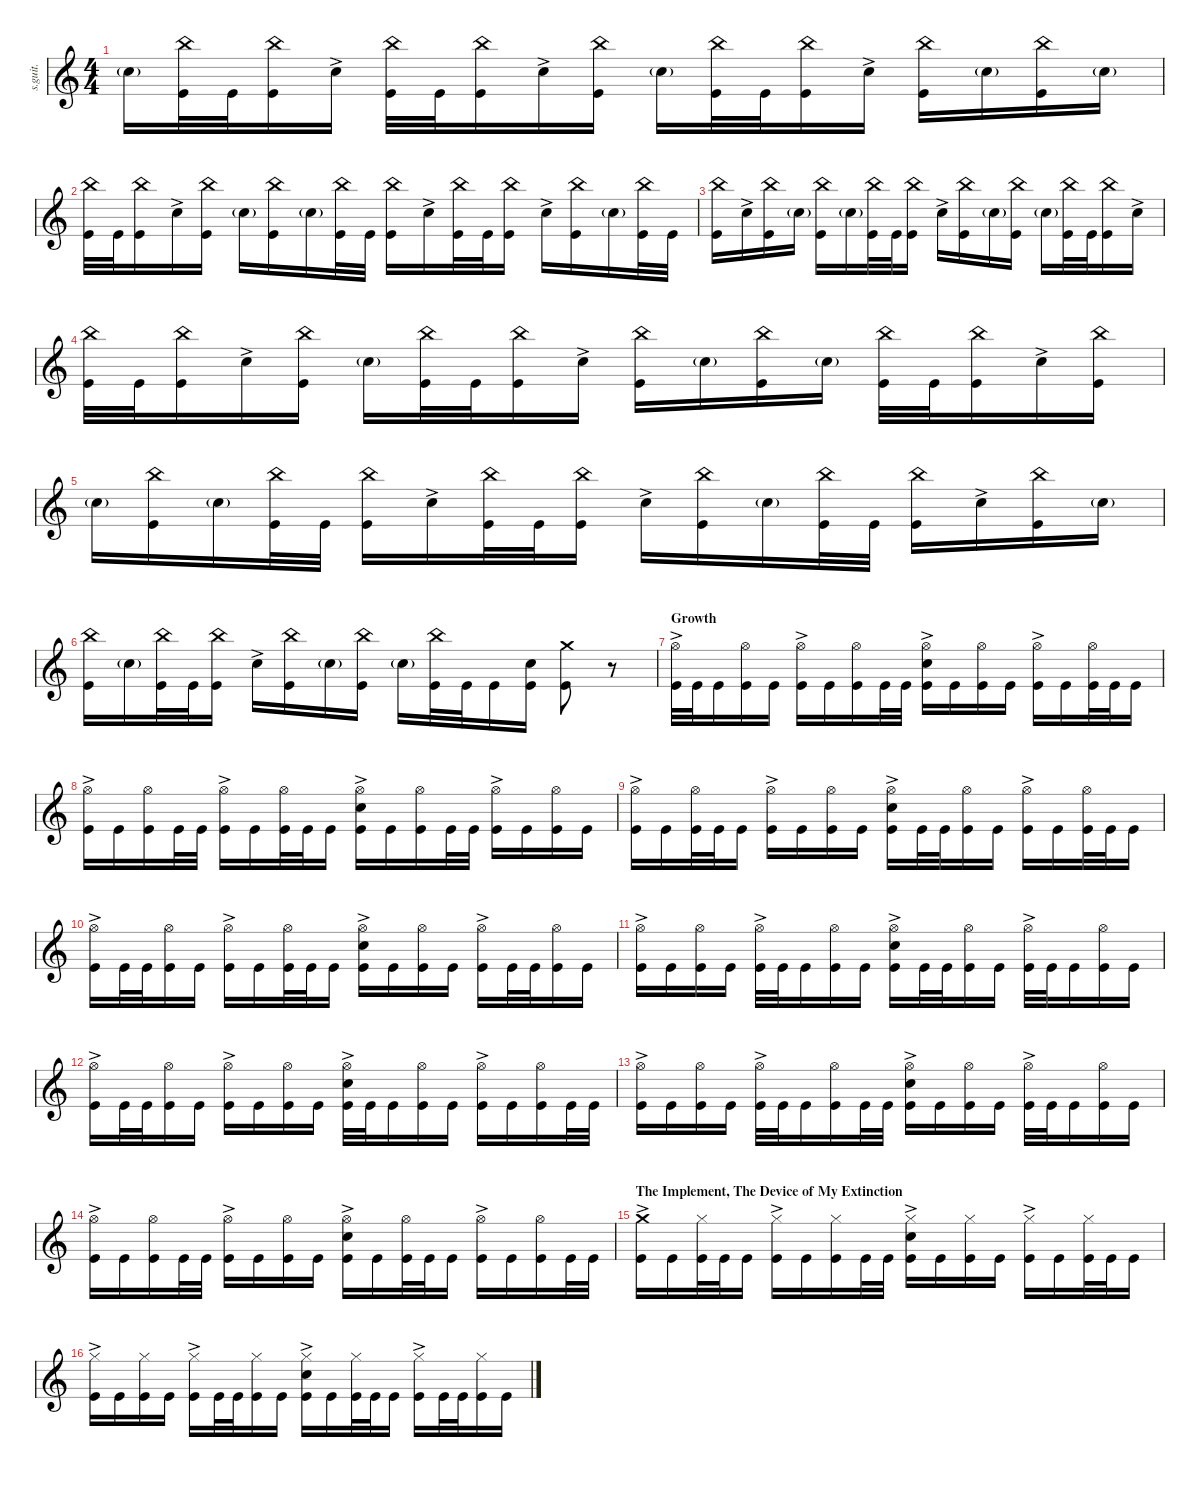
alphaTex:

\defaultSystemsLayout 4
\hideDynamics
\bracketExtendMode nobrackets
\track ("Tomas Haake (Drums)" "s.guit.") {instrument percussion}
\staff {score}
\articulation defaults
\ts (4 4)
\tempo (115 hide)
\clef g2
\ks c "Snare (hit) 2"{g}.16{lyrics (0 "") lyrics (1 "") lyrics (2 "") lyrics (3 "") lyrics (4 "") dy f}
("China (hit)" "Kick (hit)").32{lyrics (0 "") lyrics (1 "") lyrics (2 "") lyrics (3 "") lyrics (4 "") dy mf} "Kick (hit)".32{lyrics (0 "") lyrics (1 "") lyrics (2 "") lyrics (3 "") lyrics (4 "")} ("China (hit)" "Kick (hit)").16{lyrics (0 "") lyrics (1 "") lyrics (2 "") lyrics (3 "") lyrics (4 "") dy f} "Snare (hit) 2"{ac}.16{lyrics (0 "") lyrics (1 "") lyrics (2 "") lyrics (3 "") lyrics (4 "") dy pp} ("China (hit)" "Kick (hit)").32{lyrics (0 "") lyrics (1 "") lyrics (2 "") lyrics (3 "") lyrics (4 "") dy mf} "Kick (hit)".32{lyrics (0 "") lyrics (1 "") lyrics (2 "") lyrics (3 "") lyrics (4 "")} ("China (hit)" "Kick (hit)").16{lyrics (0 "") lyrics (1 "") lyrics (2 "") lyrics (3 "") lyrics (4 "") dy f} "Snare (hit) 2"{ac}.16{lyrics (0 "") lyrics (1 "") lyrics (2 "") lyrics (3 "") lyrics (4 "") dy pp} ("China (hit)" "Kick (hit)").16{lyrics (0 "") lyrics (1 "") lyrics (2 "") lyrics (3 "") lyrics (4 "") dy f} "Snare (hit) 2"{g}.16{lyrics (0 "") lyrics (1 "") lyrics (2 "") lyrics (3 "") lyrics (4 "")} ("China (hit)" "Kick (hit)").32{lyrics (0 "") lyrics (1 "") lyrics (2 "") lyrics (3 "") lyrics (4 "") dy mf} "Kick (hit)".32{lyrics (0 "") lyrics (1 "") lyrics (2 "") lyrics (3 "") lyrics (4 "")} ("China (hit)" "Kick (hit)").16{lyrics (0 "") lyrics (1 "") lyrics (2 "") lyrics (3 "") lyrics (4 "") dy f} "Snare (hit) 2"{ac}.16{lyrics (0 "") lyrics (1 "") lyrics (2 "") lyrics (3 "") lyrics (4 "") dy pp} ("China (hit)" "Kick (hit)").16{lyrics (0 "") lyrics (1 "") lyrics (2 "") lyrics (3 "") lyrics (4 "") dy f} "Snare (hit) 2"{g}.16{lyrics (0 "") lyrics (1 "") lyrics (2 "") lyrics (3 "") lyrics (4 "")} ("China (hit)" "Kick (hit)").16{lyrics (0 "") lyrics (1 "") lyrics (2 "") lyrics (3 "") lyrics (4 "")} "Snare (hit) 2"{g}.16{lyrics (0 "") lyrics (1 "") lyrics (2 "") lyrics (3 "") lyrics (4 "")} |
("China (hit)" "Kick (hit)").32{lyrics (0 "") lyrics (1 "") lyrics (2 "") lyrics (3 "") lyrics (4 "") dy mf} "Kick (hit)".32{lyrics (0 "") lyrics (1 "") lyrics (2 "") lyrics (3 "") lyrics (4 "")} ("China (hit)" "Kick (hit)").16{lyrics (0 "") lyrics (1 "") lyrics (2 "") lyrics (3 "") lyrics (4 "") dy f} "Snare (hit) 2"{ac}.16{lyrics (0 "") lyrics (1 "") lyrics (2 "") lyrics (3 "") lyrics (4 "") dy pp} ("China (hit)" "Kick (hit)").16{lyrics (0 "") lyrics (1 "") lyrics (2 "") lyrics (3 "") lyrics (4 "") dy f} "Snare (hit) 2"{g}.16{lyrics (0 "") lyrics (1 "") lyrics (2 "") lyrics (3 "") lyrics (4 "")} ("China (hit)" "Kick (hit)").16{lyrics (0 "") lyrics (1 "") lyrics (2 "") lyrics (3 "") lyrics (4 "")} "Snare (hit) 2"{g}.16{lyrics (0 "") lyrics (1 "") lyrics (2 "") lyrics (3 "") lyrics (4 "")} ("China (hit)" "Kick (hit)").32{lyrics (0 "") lyrics (1 "") lyrics (2 "") lyrics (3 "") lyrics (4 "") dy mf} "Kick (hit)".32{lyrics (0 "") lyrics (1 "") lyrics (2 "") lyrics (3 "") lyrics (4 "")} ("China (hit)" "Kick (hit)").16{lyrics (0 "") lyrics (1 "") lyrics (2 "") lyrics (3 "") lyrics (4 "") dy f} "Snare (hit) 2"{ac}.16{lyrics (0 "") lyrics (1 "") lyrics (2 "") lyrics (3 "") lyrics (4 "") dy pp} ("China (hit)" "Kick (hit)").32{lyrics (0 "") lyrics (1 "") lyrics (2 "") lyrics (3 "") lyrics (4 "") dy mf} "Kick (hit)".32{lyrics (0 "") lyrics (1 "") lyrics (2 "") lyrics (3 "") lyrics (4 "")} ("China (hit)" "Kick (hit)").16{lyrics (0 "") lyrics (1 "") lyrics (2 "") lyrics (3 "") lyrics (4 "") dy f} "Snare (hit) 2"{ac}.16{lyrics (0 "") lyrics (1 "") lyrics (2 "") lyrics (3 "") lyrics (4 "") dy pp} ("China (hit)" "Kick (hit)").16{lyrics (0 "") lyrics (1 "") lyrics (2 "") lyrics (3 "") lyrics (4 "") dy f} "Snare (hit) 2"{g}.16{lyrics (0 "") lyrics (1 "") lyrics (2 "") lyrics (3 "") lyrics (4 "")} ("China (hit)" "Kick (hit)").32{lyrics (0 "") lyrics (1 "") lyrics (2 "") lyrics (3 "") lyrics (4 "") dy mf} "Kick (hit)".32{lyrics (0 "") lyrics (1 "") lyrics (2 "") lyrics (3 "") lyrics (4 "")} |
("China (hit)" "Kick (hit)").16{lyrics (0 "") lyrics (1 "") lyrics (2 "") lyrics (3 "") lyrics (4 "") dy f} "Snare (hit) 2"{ac}.16{lyrics (0 "") lyrics (1 "") lyrics (2 "") lyrics (3 "") lyrics (4 "") dy pp} ("China (hit)" "Kick (hit)").16{lyrics (0 "") lyrics (1 "") lyrics (2 "") lyrics (3 "") lyrics (4 "") dy f} "Snare (hit) 2"{g}.16{lyrics (0 "") lyrics (1 "") lyrics (2 "") lyrics (3 "") lyrics (4 "")} ("China (hit)" "Kick (hit)").16{lyrics (0 "") lyrics (1 "") lyrics (2 "") lyrics (3 "") lyrics (4 "")} "Snare (hit) 2"{g}.16{lyrics (0 "") lyrics (1 "") lyrics (2 "") lyrics (3 "") lyrics (4 "")} ("China (hit)" "Kick (hit)").32{lyrics (0 "") lyrics (1 "") lyrics (2 "") lyrics (3 "") lyrics (4 "") dy mf} "Kick (hit)".32{lyrics (0 "") lyrics (1 "") lyrics (2 "") lyrics (3 "") lyrics (4 "")} ("China (hit)" "Kick (hit)").16{lyrics (0 "") lyrics (1 "") lyrics (2 "") lyrics (3 "") lyrics (4 "") dy f} "Snare (hit) 2"{ac}.16{lyrics (0 "") lyrics (1 "") lyrics (2 "") lyrics (3 "") lyrics (4 "") dy pp} ("China (hit)" "Kick (hit)").16{lyrics (0 "") lyrics (1 "") lyrics (2 "") lyrics (3 "") lyrics (4 "") dy f} "Snare (hit) 2"{g}.16{lyrics (0 "") lyrics (1 "") lyrics (2 "") lyrics (3 "") lyrics (4 "")} ("China (hit)" "Kick (hit)").16{lyrics (0 "") lyrics (1 "") lyrics (2 "") lyrics (3 "") lyrics (4 "")} "Snare (hit) 2"{g}.16{lyrics (0 "") lyrics (1 "") lyrics (2 "") lyrics (3 "") lyrics (4 "")} ("China (hit)" "Kick (hit)").32{lyrics (0 "") lyrics (1 "") lyrics (2 "") lyrics (3 "") lyrics (4 "") dy mf} "Kick (hit)".32{lyrics (0 "") lyrics (1 "") lyrics (2 "") lyrics (3 "") lyrics (4 "")} ("China (hit)" "Kick (hit)").16{lyrics (0 "") lyrics (1 "") lyrics (2 "") lyrics (3 "") lyrics (4 "") dy f} "Snare (hit) 2"{ac}.16{lyrics (0 "") lyrics (1 "") lyrics (2 "") lyrics (3 "") lyrics (4 "") dy pp} |
("China (hit)" "Kick (hit)").32{lyrics (0 "") lyrics (1 "") lyrics (2 "") lyrics (3 "") lyrics (4 "") dy mf} "Kick (hit)".32{lyrics (0 "") lyrics (1 "") lyrics (2 "") lyrics (3 "") lyrics (4 "")} ("China (hit)" "Kick (hit)").16{lyrics (0 "") lyrics (1 "") lyrics (2 "") lyrics (3 "") lyrics (4 "") dy f} "Snare (hit) 2"{ac}.16{lyrics (0 "") lyrics (1 "") lyrics (2 "") lyrics (3 "") lyrics (4 "") dy pp} ("China (hit)" "Kick (hit)").16{lyrics (0 "") lyrics (1 "") lyrics (2 "") lyrics (3 "") lyrics (4 "") dy f} "Snare (hit) 2"{g}.16{lyrics (0 "") lyrics (1 "") lyrics (2 "") lyrics (3 "") lyrics (4 "")} ("China (hit)" "Kick (hit)").32{lyrics (0 "") lyrics (1 "") lyrics (2 "") lyrics (3 "") lyrics (4 "") dy mf} "Kick (hit)".32{lyrics (0 "") lyrics (1 "") lyrics (2 "") lyrics (3 "") lyrics (4 "")} ("China (hit)" "Kick (hit)").16{lyrics (0 "") lyrics (1 "") lyrics (2 "") lyrics (3 "") lyrics (4 "") dy f} "Snare (hit) 2"{ac}.16{lyrics (0 "") lyrics (1 "") lyrics (2 "") lyrics (3 "") lyrics (4 "") dy pp} ("China (hit)" "Kick (hit)").16{lyrics (0 "") lyrics (1 "") lyrics (2 "") lyrics (3 "") lyrics (4 "") dy f} "Snare (hit) 2"{g}.16{lyrics (0 "") lyrics (1 "") lyrics (2 "") lyrics (3 "") lyrics (4 "")} ("China (hit)" "Kick (hit)").16{lyrics (0 "") lyrics (1 "") lyrics (2 "") lyrics (3 "") lyrics (4 "")} "Snare (hit) 2"{g}.16{lyrics (0 "") lyrics (1 "") lyrics (2 "") lyrics (3 "") lyrics (4 "")} ("China (hit)" "Kick (hit)").32{lyrics (0 "") lyrics (1 "") lyrics (2 "") lyrics (3 "") lyrics (4 "") dy mf} "Kick (hit)".32{lyrics (0 "") lyrics (1 "") lyrics (2 "") lyrics (3 "") lyrics (4 "")} ("China (hit)" "Kick (hit)").16{lyrics (0 "") lyrics (1 "") lyrics (2 "") lyrics (3 "") lyrics (4 "") dy f} "Snare (hit) 2"{ac}.16{lyrics (0 "") lyrics (1 "") lyrics (2 "") lyrics (3 "") lyrics (4 "") dy pp} ("China (hit)" "Kick (hit)").16{lyrics (0 "") lyrics (1 "") lyrics (2 "") lyrics (3 "") lyrics (4 "") dy f} |
"Snare (hit) 2"{g}.16{lyrics (0 "") lyrics (1 "") lyrics (2 "") lyrics (3 "") lyrics (4 "")} ("China (hit)" "Kick (hit)").16{lyrics (0 "") lyrics (1 "") lyrics (2 "") lyrics (3 "") lyrics (4 "")} "Snare (hit) 2"{g}.16{lyrics (0 "") lyrics (1 "") lyrics (2 "") lyrics (3 "") lyrics (4 "")} ("China (hit)" "Kick (hit)").32{lyrics (0 "") lyrics (1 "") lyrics (2 "") lyrics (3 "") lyrics (4 "") dy mf} "Kick (hit)".32{lyrics (0 "") lyrics (1 "") lyrics (2 "") lyrics (3 "") lyrics (4 "")} ("China (hit)" "Kick (hit)").16{lyrics (0 "") lyrics (1 "") lyrics (2 "") lyrics (3 "") lyrics (4 "") dy f} "Snare (hit) 2"{ac}.16{lyrics (0 "") lyrics (1 "") lyrics (2 "") lyrics (3 "") lyrics (4 "") dy pp} ("China (hit)" "Kick (hit)").32{lyrics (0 "") lyrics (1 "") lyrics (2 "") lyrics (3 "") lyrics (4 "") dy mf} "Kick (hit)".32{lyrics (0 "") lyrics (1 "") lyrics (2 "") lyrics (3 "") lyrics (4 "")} ("China (hit)" "Kick (hit)").16{lyrics (0 "") lyrics (1 "") lyrics (2 "") lyrics (3 "") lyrics (4 "") dy f} "Snare (hit) 2"{ac}.16{lyrics (0 "") lyrics (1 "") lyrics (2 "") lyrics (3 "") lyrics (4 "") dy pp} ("China (hit)" "Kick (hit)").16{lyrics (0 "") lyrics (1 "") lyrics (2 "") lyrics (3 "") lyrics (4 "") dy f} "Snare (hit) 2"{g}.16{lyrics (0 "") lyrics (1 "") lyrics (2 "") lyrics (3 "") lyrics (4 "")} ("China (hit)" "Kick (hit)").32{lyrics (0 "") lyrics (1 "") lyrics (2 "") lyrics (3 "") lyrics (4 "") dy mf} "Kick (hit)".32{lyrics (0 "") lyrics (1 "") lyrics (2 "") lyrics (3 "") lyrics (4 "")} ("China (hit)" "Kick (hit)").16{lyrics (0 "") lyrics (1 "") lyrics (2 "") lyrics (3 "") lyrics (4 "") dy f} "Snare (hit) 2"{ac}.16{lyrics (0 "") lyrics (1 "") lyrics (2 "") lyrics (3 "") lyrics (4 "") dy pp} ("China (hit)" "Kick (hit)").16{lyrics (0 "") lyrics (1 "") lyrics (2 "") lyrics (3 "") lyrics (4 "") dy f} "Snare (hit) 2"{g}.16{lyrics (0 "") lyrics (1 "") lyrics (2 "") lyrics (3 "") lyrics (4 "")} |
("China (hit)" "Kick (hit)").16{lyrics (0 "") lyrics (1 "") lyrics (2 "") lyrics (3 "") lyrics (4 "")} "Snare (hit) 2"{g}.16{lyrics (0 "") lyrics (1 "") lyrics (2 "") lyrics (3 "") lyrics (4 "")} ("China (hit)" "Kick (hit)").32{lyrics (0 "") lyrics (1 "") lyrics (2 "") lyrics (3 "") lyrics (4 "") dy mf} "Kick (hit)".32{lyrics (0 "") lyrics (1 "") lyrics (2 "") lyrics (3 "") lyrics (4 "")} ("China (hit)" "Kick (hit)").16{lyrics (0 "") lyrics (1 "") lyrics (2 "") lyrics (3 "") lyrics (4 "") dy f} "Snare (hit) 2"{ac}.16{lyrics (0 "") lyrics (1 "") lyrics (2 "") lyrics (3 "") lyrics (4 "") dy pp} ("China (hit)" "Kick (hit)").16{lyrics (0 "") lyrics (1 "") lyrics (2 "") lyrics (3 "") lyrics (4 "") dy f} "Snare (hit) 2"{g}.16{lyrics (0 "") lyrics (1 "") lyrics (2 "") lyrics (3 "") lyrics (4 "")} ("China (hit)" "Kick (hit)").16{lyrics (0 "") lyrics (1 "") lyrics (2 "") lyrics (3 "") lyrics (4 "")} "Snare (hit) 2"{g}.16{lyrics (0 "") lyrics (1 "") lyrics (2 "") lyrics (3 "") lyrics (4 "") dy fff} ("China (hit)" "Kick (hit)").32{lyrics (0 "") lyrics (1 "") lyrics (2 "") lyrics (3 "") lyrics (4 "") dy mp} "Kick (hit)".32{lyrics (0 "") lyrics (1 "") lyrics (2 "") lyrics (3 "") lyrics (4 "") dy mf} "Kick (hit)".16{lyrics (0 "") lyrics (1 "") lyrics (2 "") lyrics (3 "") lyrics (4 "") dy f} ("Snare (hit) 2" "Kick (hit)").16{lyrics (0 "") lyrics (1 "") lyrics (2 "") lyrics (3 "") lyrics (4 "")} ("Crash medium (hit)" "Kick (hit)").8{lyrics (0 "") lyrics (1 "") lyrics (2 "") lyrics (3 "") lyrics (4 "") dy mf} r.8 |
\section ("" "Growth")
("Hi-Hat (open)"{ac} "Kick (hit)").32{lyrics (0 "") lyrics (1 "") lyrics (2 "") lyrics (3 "") lyrics (4 "") dy f} "Kick (hit)".32{lyrics (0 "") lyrics (1 "") lyrics (2 "") lyrics (3 "") lyrics (4 "") dy mf} "Kick (hit)".16{lyrics (0 "") lyrics (1 "") lyrics (2 "") lyrics (3 "") lyrics (4 "") dy f} ("Hi-Hat (open)" "Kick (hit)").16{lyrics (0 "") lyrics (1 "") lyrics (2 "") lyrics (3 "") lyrics (4 "") dy p} "Kick (hit)".16{lyrics (0 "") lyrics (1 "") lyrics (2 "") lyrics (3 "") lyrics (4 "") dy f} ("Hi-Hat (open)"{ac} "Kick (hit)").16{lyrics (0 "") lyrics (1 "") lyrics (2 "") lyrics (3 "") lyrics (4 "")} "Kick (hit)".16{lyrics (0 "") lyrics (1 "") lyrics (2 "") lyrics (3 "") lyrics (4 "")} ("Hi-Hat (open)" "Kick (hit)").16{lyrics (0 "") lyrics (1 "") lyrics (2 "") lyrics (3 "") lyrics (4 "") dy p} "Kick (hit)".32{lyrics (0 "") lyrics (1 "") lyrics (2 "") lyrics (3 "") lyrics (4 "") dy f} "Kick (hit)".32{lyrics (0 "") lyrics (1 "") lyrics (2 "") lyrics (3 "") lyrics (4 "") dy mf} ("Hi-Hat (open)"{ac} "Snare (hit) 2" "Kick (hit)").16{lyrics (0 "") lyrics (1 "") lyrics (2 "") lyrics (3 "") lyrics (4 "") dy f} "Kick (hit)".16{lyrics (0 "") lyrics (1 "") lyrics (2 "") lyrics (3 "") lyrics (4 "")} ("Hi-Hat (open)" "Kick (hit)").16{lyrics (0 "") lyrics (1 "") lyrics (2 "") lyrics (3 "") lyrics (4 "") dy p} "Kick (hit)".16{lyrics (0 "") lyrics (1 "") lyrics (2 "") lyrics (3 "") lyrics (4 "") dy f} ("Hi-Hat (open)"{ac} "Kick (hit)").16{lyrics (0 "") lyrics (1 "") lyrics (2 "") lyrics (3 "") lyrics (4 "")} "Kick (hit)".16{lyrics (0 "") lyrics (1 "") lyrics (2 "") lyrics (3 "") lyrics (4 "")} ("Hi-Hat (open)" "Kick (hit)").32{lyrics (0 "") lyrics (1 "") lyrics (2 "") lyrics (3 "") lyrics (4 "") dy p} "Kick (hit)".32{lyrics (0 "") lyrics (1 "") lyrics (2 "") lyrics (3 "") lyrics (4 "") dy mf} "Kick (hit)".16{lyrics (0 "") lyrics (1 "") lyrics (2 "") lyrics (3 "") lyrics (4 "") dy f} |
("Hi-Hat (open)"{ac} "Kick (hit)").16{lyrics (0 "") lyrics (1 "") lyrics (2 "") lyrics (3 "") lyrics (4 "")} "Kick (hit)".16{lyrics (0 "") lyrics (1 "") lyrics (2 "") lyrics (3 "") lyrics (4 "")} ("Hi-Hat (open)" "Kick (hit)").16{lyrics (0 "") lyrics (1 "") lyrics (2 "") lyrics (3 "") lyrics (4 "") dy p} "Kick (hit)".32{lyrics (0 "") lyrics (1 "") lyrics (2 "") lyrics (3 "") lyrics (4 "") dy f} "Kick (hit)".32{lyrics (0 "") lyrics (1 "") lyrics (2 "") lyrics (3 "") lyrics (4 "") dy mf} ("Hi-Hat (open)"{ac} "Kick (hit)").16{lyrics (0 "") lyrics (1 "") lyrics (2 "") lyrics (3 "") lyrics (4 "") dy f} "Kick (hit)".16{lyrics (0 "") lyrics (1 "") lyrics (2 "") lyrics (3 "") lyrics (4 "")} ("Hi-Hat (open)" "Kick (hit)").32{lyrics (0 "") lyrics (1 "") lyrics (2 "") lyrics (3 "") lyrics (4 "") dy p} "Kick (hit)".32{lyrics (0 "") lyrics (1 "") lyrics (2 "") lyrics (3 "") lyrics (4 "") dy mf} "Kick (hit)".16{lyrics (0 "") lyrics (1 "") lyrics (2 "") lyrics (3 "") lyrics (4 "") dy f} ("Hi-Hat (open)"{ac} "Snare (hit) 2" "Kick (hit)").16{lyrics (0 "") lyrics (1 "") lyrics (2 "") lyrics (3 "") lyrics (4 "")} "Kick (hit)".16{lyrics (0 "") lyrics (1 "") lyrics (2 "") lyrics (3 "") lyrics (4 "")} ("Hi-Hat (open)" "Kick (hit)").16{lyrics (0 "") lyrics (1 "") lyrics (2 "") lyrics (3 "") lyrics (4 "") dy p} "Kick (hit)".32{lyrics (0 "") lyrics (1 "") lyrics (2 "") lyrics (3 "") lyrics (4 "") dy f} "Kick (hit)".32{lyrics (0 "") lyrics (1 "") lyrics (2 "") lyrics (3 "") lyrics (4 "") dy mf} ("Hi-Hat (open)"{ac} "Kick (hit)").16{lyrics (0 "") lyrics (1 "") lyrics (2 "") lyrics (3 "") lyrics (4 "") dy f} "Kick (hit)".16{lyrics (0 "") lyrics (1 "") lyrics (2 "") lyrics (3 "") lyrics (4 "")} ("Hi-Hat (open)" "Kick (hit)").16{lyrics (0 "") lyrics (1 "") lyrics (2 "") lyrics (3 "") lyrics (4 "") dy p} "Kick (hit)".16{lyrics (0 "") lyrics (1 "") lyrics (2 "") lyrics (3 "") lyrics (4 "") dy f} |
("Hi-Hat (open)"{ac} "Kick (hit)").16{lyrics (0 "") lyrics (1 "") lyrics (2 "") lyrics (3 "") lyrics (4 "")} "Kick (hit)".16{lyrics (0 "") lyrics (1 "") lyrics (2 "") lyrics (3 "") lyrics (4 "")} ("Hi-Hat (open)" "Kick (hit)").32{lyrics (0 "") lyrics (1 "") lyrics (2 "") lyrics (3 "") lyrics (4 "") dy p} "Kick (hit)".32{lyrics (0 "") lyrics (1 "") lyrics (2 "") lyrics (3 "") lyrics (4 "") dy mf} "Kick (hit)".16{lyrics (0 "") lyrics (1 "") lyrics (2 "") lyrics (3 "") lyrics (4 "") dy f} ("Hi-Hat (open)"{ac} "Kick (hit)").16{lyrics (0 "") lyrics (1 "") lyrics (2 "") lyrics (3 "") lyrics (4 "")} "Kick (hit)".16{lyrics (0 "") lyrics (1 "") lyrics (2 "") lyrics (3 "") lyrics (4 "")} ("Hi-Hat (open)" "Kick (hit)").16{lyrics (0 "") lyrics (1 "") lyrics (2 "") lyrics (3 "") lyrics (4 "") dy p} "Kick (hit)".16{lyrics (0 "") lyrics (1 "") lyrics (2 "") lyrics (3 "") lyrics (4 "") dy f} ("Hi-Hat (open)"{ac} "Snare (hit) 2" "Kick (hit)").16{lyrics (0 "") lyrics (1 "") lyrics (2 "") lyrics (3 "") lyrics (4 "")} "Kick (hit)".32{lyrics (0 "") lyrics (1 "") lyrics (2 "") lyrics (3 "") lyrics (4 "")} "Kick (hit)".32{lyrics (0 "") lyrics (1 "") lyrics (2 "") lyrics (3 "") lyrics (4 "") dy mf} ("Hi-Hat (open)" "Kick (hit)").16{lyrics (0 "") lyrics (1 "") lyrics (2 "") lyrics (3 "") lyrics (4 "") dy p} "Kick (hit)".16{lyrics (0 "") lyrics (1 "") lyrics (2 "") lyrics (3 "") lyrics (4 "") dy f} ("Hi-Hat (open)"{ac} "Kick (hit)").16{lyrics (0 "") lyrics (1 "") lyrics (2 "") lyrics (3 "") lyrics (4 "")} "Kick (hit)".16{lyrics (0 "") lyrics (1 "") lyrics (2 "") lyrics (3 "") lyrics (4 "")} ("Hi-Hat (open)" "Kick (hit)").32{lyrics (0 "") lyrics (1 "") lyrics (2 "") lyrics (3 "") lyrics (4 "") dy p} "Kick (hit)".32{lyrics (0 "") lyrics (1 "") lyrics (2 "") lyrics (3 "") lyrics (4 "") dy mf} "Kick (hit)".16{lyrics (0 "") lyrics (1 "") lyrics (2 "") lyrics (3 "") lyrics (4 "") dy f} |
("Hi-Hat (open)"{ac} "Kick (hit)").16{lyrics (0 "") lyrics (1 "") lyrics (2 "") lyrics (3 "") lyrics (4 "")} "Kick (hit)".32{lyrics (0 "") lyrics (1 "") lyrics (2 "") lyrics (3 "") lyrics (4 "")} "Kick (hit)".32{lyrics (0 "") lyrics (1 "") lyrics (2 "") lyrics (3 "") lyrics (4 "") dy mf} ("Hi-Hat (open)" "Kick (hit)").16{lyrics (0 "") lyrics (1 "") lyrics (2 "") lyrics (3 "") lyrics (4 "") dy p} "Kick (hit)".16{lyrics (0 "") lyrics (1 "") lyrics (2 "") lyrics (3 "") lyrics (4 "") dy f} ("Hi-Hat (open)"{ac} "Kick (hit)").16{lyrics (0 "") lyrics (1 "") lyrics (2 "") lyrics (3 "") lyrics (4 "")} "Kick (hit)".16{lyrics (0 "") lyrics (1 "") lyrics (2 "") lyrics (3 "") lyrics (4 "")} ("Hi-Hat (open)" "Kick (hit)").32{lyrics (0 "") lyrics (1 "") lyrics (2 "") lyrics (3 "") lyrics (4 "") dy p} "Kick (hit)".32{lyrics (0 "") lyrics (1 "") lyrics (2 "") lyrics (3 "") lyrics (4 "") dy mf} "Kick (hit)".16{lyrics (0 "") lyrics (1 "") lyrics (2 "") lyrics (3 "") lyrics (4 "") dy f} ("Hi-Hat (open)"{ac} "Snare (hit) 2" "Kick (hit)").16{lyrics (0 "") lyrics (1 "") lyrics (2 "") lyrics (3 "") lyrics (4 "")} "Kick (hit)".16{lyrics (0 "") lyrics (1 "") lyrics (2 "") lyrics (3 "") lyrics (4 "")} ("Hi-Hat (open)" "Kick (hit)").16{lyrics (0 "") lyrics (1 "") lyrics (2 "") lyrics (3 "") lyrics (4 "") dy p} "Kick (hit)".16{lyrics (0 "") lyrics (1 "") lyrics (2 "") lyrics (3 "") lyrics (4 "") dy f} ("Hi-Hat (open)"{ac} "Kick (hit)").16{lyrics (0 "") lyrics (1 "") lyrics (2 "") lyrics (3 "") lyrics (4 "")} "Kick (hit)".32{lyrics (0 "") lyrics (1 "") lyrics (2 "") lyrics (3 "") lyrics (4 "")} "Kick (hit)".32{lyrics (0 "") lyrics (1 "") lyrics (2 "") lyrics (3 "") lyrics (4 "") dy mf} ("Hi-Hat (open)" "Kick (hit)").16{lyrics (0 "") lyrics (1 "") lyrics (2 "") lyrics (3 "") lyrics (4 "") dy p} "Kick (hit)".16{lyrics (0 "") lyrics (1 "") lyrics (2 "") lyrics (3 "") lyrics (4 "") dy f} |
("Hi-Hat (open)"{ac} "Kick (hit)").16{lyrics (0 "") lyrics (1 "") lyrics (2 "") lyrics (3 "") lyrics (4 "")} "Kick (hit)".16{lyrics (0 "") lyrics (1 "") lyrics (2 "") lyrics (3 "") lyrics (4 "")} ("Hi-Hat (open)" "Kick (hit)").16{lyrics (0 "") lyrics (1 "") lyrics (2 "") lyrics (3 "") lyrics (4 "") dy p} "Kick (hit)".16{lyrics (0 "") lyrics (1 "") lyrics (2 "") lyrics (3 "") lyrics (4 "") dy f} ("Hi-Hat (open)"{ac} "Kick (hit)").32{lyrics (0 "") lyrics (1 "") lyrics (2 "") lyrics (3 "") lyrics (4 "")} "Kick (hit)".32{lyrics (0 "") lyrics (1 "") lyrics (2 "") lyrics (3 "") lyrics (4 "") dy mf} "Kick (hit)".16{lyrics (0 "") lyrics (1 "") lyrics (2 "") lyrics (3 "") lyrics (4 "") dy f} ("Hi-Hat (open)" "Kick (hit)").16{lyrics (0 "") lyrics (1 "") lyrics (2 "") lyrics (3 "") lyrics (4 "") dy p} "Kick (hit)".16{lyrics (0 "") lyrics (1 "") lyrics (2 "") lyrics (3 "") lyrics (4 "") dy f} ("Hi-Hat (open)"{ac} "Snare (hit) 2" "Kick (hit)").16{lyrics (0 "") lyrics (1 "") lyrics (2 "") lyrics (3 "") lyrics (4 "")} "Kick (hit)".32{lyrics (0 "") lyrics (1 "") lyrics (2 "") lyrics (3 "") lyrics (4 "")} "Kick (hit)".32{lyrics (0 "") lyrics (1 "") lyrics (2 "") lyrics (3 "") lyrics (4 "") dy mf} ("Hi-Hat (open)" "Kick (hit)").16{lyrics (0 "") lyrics (1 "") lyrics (2 "") lyrics (3 "") lyrics (4 "") dy p} "Kick (hit)".16{lyrics (0 "") lyrics (1 "") lyrics (2 "") lyrics (3 "") lyrics (4 "") dy f} ("Hi-Hat (open)"{ac} "Kick (hit)").32{lyrics (0 "") lyrics (1 "") lyrics (2 "") lyrics (3 "") lyrics (4 "")} "Kick (hit)".32{lyrics (0 "") lyrics (1 "") lyrics (2 "") lyrics (3 "") lyrics (4 "") dy mf} "Kick (hit)".16{lyrics (0 "") lyrics (1 "") lyrics (2 "") lyrics (3 "") lyrics (4 "") dy f} ("Hi-Hat (open)" "Kick (hit)").16{lyrics (0 "") lyrics (1 "") lyrics (2 "") lyrics (3 "") lyrics (4 "") dy p} "Kick (hit)".16{lyrics (0 "") lyrics (1 "") lyrics (2 "") lyrics (3 "") lyrics (4 "") dy f} |
("Hi-Hat (open)"{ac} "Kick (hit)").16{lyrics (0 "") lyrics (1 "") lyrics (2 "") lyrics (3 "") lyrics (4 "")} "Kick (hit)".32{lyrics (0 "") lyrics (1 "") lyrics (2 "") lyrics (3 "") lyrics (4 "")} "Kick (hit)".32{lyrics (0 "") lyrics (1 "") lyrics (2 "") lyrics (3 "") lyrics (4 "") dy mf} ("Hi-Hat (open)" "Kick (hit)").16{lyrics (0 "") lyrics (1 "") lyrics (2 "") lyrics (3 "") lyrics (4 "") dy p} "Kick (hit)".16{lyrics (0 "") lyrics (1 "") lyrics (2 "") lyrics (3 "") lyrics (4 "") dy f} ("Hi-Hat (open)"{ac} "Kick (hit)").16{lyrics (0 "") lyrics (1 "") lyrics (2 "") lyrics (3 "") lyrics (4 "")} "Kick (hit)".16{lyrics (0 "") lyrics (1 "") lyrics (2 "") lyrics (3 "") lyrics (4 "")} ("Hi-Hat (open)" "Kick (hit)").16{lyrics (0 "") lyrics (1 "") lyrics (2 "") lyrics (3 "") lyrics (4 "") dy p} "Kick (hit)".16{lyrics (0 "") lyrics (1 "") lyrics (2 "") lyrics (3 "") lyrics (4 "") dy f} ("Hi-Hat (open)"{ac} "Snare (hit) 2" "Kick (hit)").32{lyrics (0 "") lyrics (1 "") lyrics (2 "") lyrics (3 "") lyrics (4 "")} "Kick (hit)".32{lyrics (0 "") lyrics (1 "") lyrics (2 "") lyrics (3 "") lyrics (4 "") dy mf} "Kick (hit)".16{lyrics (0 "") lyrics (1 "") lyrics (2 "") lyrics (3 "") lyrics (4 "") dy f} ("Hi-Hat (open)" "Kick (hit)").16{lyrics (0 "") lyrics (1 "") lyrics (2 "") lyrics (3 "") lyrics (4 "") dy p} "Kick (hit)".16{lyrics (0 "") lyrics (1 "") lyrics (2 "") lyrics (3 "") lyrics (4 "") dy f} ("Hi-Hat (open)"{ac} "Kick (hit)").16{lyrics (0 "") lyrics (1 "") lyrics (2 "") lyrics (3 "") lyrics (4 "")} "Kick (hit)".16{lyrics (0 "") lyrics (1 "") lyrics (2 "") lyrics (3 "") lyrics (4 "")} ("Hi-Hat (open)" "Kick (hit)").16{lyrics (0 "") lyrics (1 "") lyrics (2 "") lyrics (3 "") lyrics (4 "") dy p} "Kick (hit)".32{lyrics (0 "") lyrics (1 "") lyrics (2 "") lyrics (3 "") lyrics (4 "") dy f} "Kick (hit)".32{lyrics (0 "") lyrics (1 "") lyrics (2 "") lyrics (3 "") lyrics (4 "") dy mf} |
("Hi-Hat (open)"{ac} "Kick (hit)").16{lyrics (0 "") lyrics (1 "") lyrics (2 "") lyrics (3 "") lyrics (4 "") dy f} "Kick (hit)".16{lyrics (0 "") lyrics (1 "") lyrics (2 "") lyrics (3 "") lyrics (4 "")} ("Hi-Hat (open)" "Kick (hit)").16{lyrics (0 "") lyrics (1 "") lyrics (2 "") lyrics (3 "") lyrics (4 "") dy p} "Kick (hit)".16{lyrics (0 "") lyrics (1 "") lyrics (2 "") lyrics (3 "") lyrics (4 "") dy f} ("Hi-Hat (open)"{ac} "Kick (hit)").32{lyrics (0 "") lyrics (1 "") lyrics (2 "") lyrics (3 "") lyrics (4 "")} "Kick (hit)".32{lyrics (0 "") lyrics (1 "") lyrics (2 "") lyrics (3 "") lyrics (4 "") dy mf} "Kick (hit)".16{lyrics (0 "") lyrics (1 "") lyrics (2 "") lyrics (3 "") lyrics (4 "") dy f} ("Hi-Hat (open)" "Kick (hit)").16{lyrics (0 "") lyrics (1 "") lyrics (2 "") lyrics (3 "") lyrics (4 "") dy p} "Kick (hit)".32{lyrics (0 "") lyrics (1 "") lyrics (2 "") lyrics (3 "") lyrics (4 "") dy f} "Kick (hit)".32{lyrics (0 "") lyrics (1 "") lyrics (2 "") lyrics (3 "") lyrics (4 "") dy mf} ("Hi-Hat (open)"{ac} "Snare (hit) 2" "Kick (hit)").16{lyrics (0 "") lyrics (1 "") lyrics (2 "") lyrics (3 "") lyrics (4 "") dy f} "Kick (hit)".16{lyrics (0 "") lyrics (1 "") lyrics (2 "") lyrics (3 "") lyrics (4 "")} ("Hi-Hat (open)" "Kick (hit)").16{lyrics (0 "") lyrics (1 "") lyrics (2 "") lyrics (3 "") lyrics (4 "") dy p} "Kick (hit)".16{lyrics (0 "") lyrics (1 "") lyrics (2 "") lyrics (3 "") lyrics (4 "") dy f} ("Hi-Hat (open)"{ac} "Kick (hit)").32{lyrics (0 "") lyrics (1 "") lyrics (2 "") lyrics (3 "") lyrics (4 "")} "Kick (hit)".32{lyrics (0 "") lyrics (1 "") lyrics (2 "") lyrics (3 "") lyrics (4 "") dy mf} "Kick (hit)".16{lyrics (0 "") lyrics (1 "") lyrics (2 "") lyrics (3 "") lyrics (4 "") dy f} ("Hi-Hat (open)" "Kick (hit)").16{lyrics (0 "") lyrics (1 "") lyrics (2 "") lyrics (3 "") lyrics (4 "") dy p} "Kick (hit)".16{lyrics (0 "") lyrics (1 "") lyrics (2 "") lyrics (3 "") lyrics (4 "") dy f} |
("Hi-Hat (open)"{ac} "Kick (hit)").16{lyrics (0 "") lyrics (1 "") lyrics (2 "") lyrics (3 "") lyrics (4 "")} "Kick (hit)".16{lyrics (0 "") lyrics (1 "") lyrics (2 "") lyrics (3 "") lyrics (4 "")} ("Hi-Hat (open)" "Kick (hit)").16{lyrics (0 "") lyrics (1 "") lyrics (2 "") lyrics (3 "") lyrics (4 "") dy p} "Kick (hit)".32{lyrics (0 "") lyrics (1 "") lyrics (2 "") lyrics (3 "") lyrics (4 "") dy f} "Kick (hit)".32{lyrics (0 "") lyrics (1 "") lyrics (2 "") lyrics (3 "") lyrics (4 "") dy mf} ("Hi-Hat (open)"{ac} "Kick (hit)").16{lyrics (0 "") lyrics (1 "") lyrics (2 "") lyrics (3 "") lyrics (4 "") dy f} "Kick (hit)".16{lyrics (0 "") lyrics (1 "") lyrics (2 "") lyrics (3 "") lyrics (4 "")} ("Hi-Hat (open)" "Kick (hit)").16{lyrics (0 "") lyrics (1 "") lyrics (2 "") lyrics (3 "") lyrics (4 "") dy p} "Kick (hit)".16{lyrics (0 "") lyrics (1 "") lyrics (2 "") lyrics (3 "") lyrics (4 "") dy f} ("Hi-Hat (open)"{ac} "Snare (hit) 2" "Kick (hit)").16{lyrics (0 "") lyrics (1 "") lyrics (2 "") lyrics (3 "") lyrics (4 "")} "Kick (hit)".16{lyrics (0 "") lyrics (1 "") lyrics (2 "") lyrics (3 "") lyrics (4 "")} ("Hi-Hat (open)" "Kick (hit)").32{lyrics (0 "") lyrics (1 "") lyrics (2 "") lyrics (3 "") lyrics (4 "") dy p} "Kick (hit)".32{lyrics (0 "") lyrics (1 "") lyrics (2 "") lyrics (3 "") lyrics (4 "") dy mf} "Kick (hit)".16{lyrics (0 "") lyrics (1 "") lyrics (2 "") lyrics (3 "") lyrics (4 "") dy f} ("Hi-Hat (open)"{ac} "Kick (hit)").16{lyrics (0 "") lyrics (1 "") lyrics (2 "") lyrics (3 "") lyrics (4 "")} "Kick (hit)".16{lyrics (0 "") lyrics (1 "") lyrics (2 "") lyrics (3 "") lyrics (4 "")} ("Hi-Hat (open)" "Kick (hit)").16{lyrics (0 "") lyrics (1 "") lyrics (2 "") lyrics (3 "") lyrics (4 "") dy p} "Kick (hit)".32{lyrics (0 "") lyrics (1 "") lyrics (2 "") lyrics (3 "") lyrics (4 "") dy f} "Kick (hit)".32{lyrics (0 "") lyrics (1 "") lyrics (2 "") lyrics (3 "") lyrics (4 "") dy mf} |
\section ("" "The Implement, The Device of My Extinction")
("Crash medium (hit)"{ac} "Kick (hit)").16{lyrics (0 "") lyrics (1 "") lyrics (2 "") lyrics (3 "") lyrics (4 "") dy f} "Kick (hit)".16{lyrics (0 "") lyrics (1 "") lyrics (2 "") lyrics (3 "") lyrics (4 "")} ("Hi-Hat (closed)" "Kick (hit)").32{lyrics (0 "") lyrics (1 "") lyrics (2 "") lyrics (3 "") lyrics (4 "") dy mp} "Kick (hit)".32{lyrics (0 "") lyrics (1 "") lyrics (2 "") lyrics (3 "") lyrics (4 "") dy mf} "Kick (hit)".16{lyrics (0 "") lyrics (1 "") lyrics (2 "") lyrics (3 "") lyrics (4 "") dy f} ("Hi-Hat (closed)"{ac} "Kick (hit)").16{lyrics (0 "") lyrics (1 "") lyrics (2 "") lyrics (3 "") lyrics (4 "")} "Kick (hit)".16{lyrics (0 "") lyrics (1 "") lyrics (2 "") lyrics (3 "") lyrics (4 "")} ("Hi-Hat (closed)" "Kick (hit)").16{lyrics (0 "") lyrics (1 "") lyrics (2 "") lyrics (3 "") lyrics (4 "") dy mp} "Kick (hit)".32{lyrics (0 "") lyrics (1 "") lyrics (2 "") lyrics (3 "") lyrics (4 "") dy f} "Kick (hit)".32{lyrics (0 "") lyrics (1 "") lyrics (2 "") lyrics (3 "") lyrics (4 "") dy mf} ("Hi-Hat (closed)"{ac} "Snare (hit) 2" "Kick (hit)").16{lyrics (0 "") lyrics (1 "") lyrics (2 "") lyrics (3 "") lyrics (4 "") dy f} "Kick (hit)".16{lyrics (0 "") lyrics (1 "") lyrics (2 "") lyrics (3 "") lyrics (4 "")} ("Hi-Hat (closed)" "Kick (hit)").16{lyrics (0 "") lyrics (1 "") lyrics (2 "") lyrics (3 "") lyrics (4 "") dy mp} "Kick (hit)".16{lyrics (0 "") lyrics (1 "") lyrics (2 "") lyrics (3 "") lyrics (4 "") dy f} ("Hi-Hat (closed)"{ac} "Kick (hit)").16{lyrics (0 "") lyrics (1 "") lyrics (2 "") lyrics (3 "") lyrics (4 "")} "Kick (hit)".16{lyrics (0 "") lyrics (1 "") lyrics (2 "") lyrics (3 "") lyrics (4 "")} ("Hi-Hat (closed)" "Kick (hit)").32{lyrics (0 "") lyrics (1 "") lyrics (2 "") lyrics (3 "") lyrics (4 "") dy mp} "Kick (hit)".32{lyrics (0 "") lyrics (1 "") lyrics (2 "") lyrics (3 "") lyrics (4 "") dy mf} "Kick (hit)".16{lyrics (0 "") lyrics (1 "") lyrics (2 "") lyrics (3 "") lyrics (4 "") dy f} |
("Hi-Hat (closed)"{ac} "Kick (hit)").16{lyrics (0 "") lyrics (1 "") lyrics (2 "") lyrics (3 "") lyrics (4 "")} "Kick (hit)".16{lyrics (0 "") lyrics (1 "") lyrics (2 "") lyrics (3 "") lyrics (4 "")} ("Hi-Hat (closed)" "Kick (hit)").16{lyrics (0 "") lyrics (1 "") lyrics (2 "") lyrics (3 "") lyrics (4 "") dy mp} "Kick (hit)".16{lyrics (0 "") lyrics (1 "") lyrics (2 "") lyrics (3 "") lyrics (4 "") dy f} ("Hi-Hat (closed)"{ac} "Kick (hit)").16{lyrics (0 "") lyrics (1 "") lyrics (2 "") lyrics (3 "") lyrics (4 "")} "Kick (hit)".32{lyrics (0 "") lyrics (1 "") lyrics (2 "") lyrics (3 "") lyrics (4 "")} "Kick (hit)".32{lyrics (0 "") lyrics (1 "") lyrics (2 "") lyrics (3 "") lyrics (4 "") dy mf} ("Hi-Hat (closed)" "Kick (hit)").16{lyrics (0 "") lyrics (1 "") lyrics (2 "") lyrics (3 "") lyrics (4 "") dy mp} "Kick (hit)".16{lyrics (0 "") lyrics (1 "") lyrics (2 "") lyrics (3 "") lyrics (4 "") dy f} ("Hi-Hat (closed)"{ac} "Snare (hit) 2" "Kick (hit)").16{lyrics (0 "") lyrics (1 "") lyrics (2 "") lyrics (3 "") lyrics (4 "")} "Kick (hit)".16{lyrics (0 "") lyrics (1 "") lyrics (2 "") lyrics (3 "") lyrics (4 "")} ("Hi-Hat (closed)" "Kick (hit)").32{lyrics (0 "") lyrics (1 "") lyrics (2 "") lyrics (3 "") lyrics (4 "") dy mp} "Kick (hit)".32{lyrics (0 "") lyrics (1 "") lyrics (2 "") lyrics (3 "") lyrics (4 "") dy mf} "Kick (hit)".16{lyrics (0 "") lyrics (1 "") lyrics (2 "") lyrics (3 "") lyrics (4 "") dy f} ("Hi-Hat (closed)"{ac} "Kick (hit)").16{lyrics (0 "") lyrics (1 "") lyrics (2 "") lyrics (3 "") lyrics (4 "")} "Kick (hit)".32{lyrics (0 "") lyrics (1 "") lyrics (2 "") lyrics (3 "") lyrics (4 "")} "Kick (hit)".32{lyrics (0 "") lyrics (1 "") lyrics (2 "") lyrics (3 "") lyrics (4 "") dy mf} ("Hi-Hat (closed)" "Kick (hit)").16{lyrics (0 "") lyrics (1 "") lyrics (2 "") lyrics (3 "") lyrics (4 "") dy mp} "Kick (hit)".16{lyrics (0 "") lyrics (1 "") lyrics (2 "") lyrics (3 "") lyrics (4 "") dy f}
